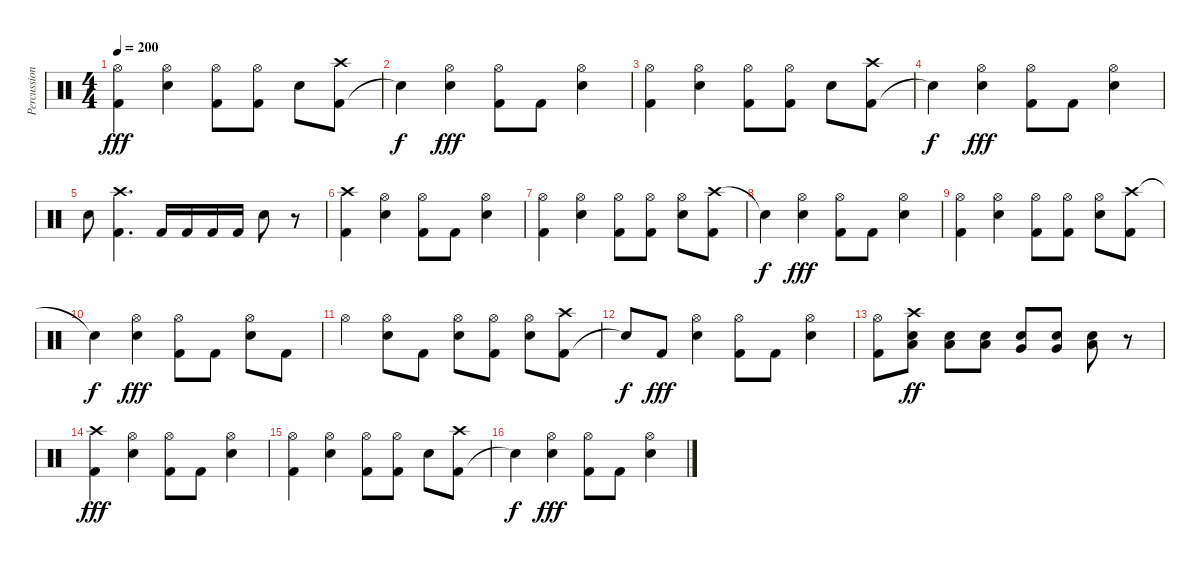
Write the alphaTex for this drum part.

\track ("Percussion" "Percussion") {instrument percussion}
\staff {score}
\articulation defaults
\ts (4 4)
\tempo 200
\clef neutral
\ks c
("Kick (hit) 2" "Hi-Hat (open)").4{dy fff} ("Snare (hit) 2" "Hi-Hat (open)").4 ("Kick (hit) 2" "Hi-Hat (open)").8 ("Kick (hit) 2" "Hi-Hat (open)").8 "Snare (hit) 2".8 ("Kick (hit) 2" "Crash high (hit)").8 |
"Snare (hit)"{t}.4{dy f} ("Snare (hit) 2" "Hi-Hat (open)").4{dy fff} ("Kick (hit) 2" "Hi-Hat (open)").8 "Kick (hit) 2".8 ("Snare (hit) 2" "Hi-Hat (open)").4 |
("Kick (hit) 2" "Hi-Hat (open)").4 ("Snare (hit) 2" "Hi-Hat (open)").4 ("Kick (hit) 2" "Hi-Hat (open)").8 ("Kick (hit) 2" "Hi-Hat (open)").8 "Snare (hit) 2".8 ("Kick (hit) 2" "Crash high (hit)").8 |
"Snare (hit)"{t}.4{dy f} ("Hi-Hat (open)" "Snare (hit) 2").4{dy fff} ("Hi-Hat (open)" "Kick (hit) 2").8 "Kick (hit) 2".8 ("Hi-Hat (open)" "Snare (hit) 2").4 |
"Snare (hit) 2".8 ("Crash high (hit)" "Kick (hit) 2").4{d} "Kick (hit) 2".16 "Kick (hit) 2".16 "Kick (hit) 2".16 "Kick (hit) 2".16 "Snare (hit) 2".8 r.8 |
("Kick (hit) 2" "Crash high (hit)").4 ("Snare (hit) 2" "Hi-Hat (open)").4 ("Kick (hit) 2" "Hi-Hat (open)").8 "Kick (hit) 2".8 ("Snare (hit) 2" "Hi-Hat (open)").4 |
("Kick (hit) 2" "Hi-Hat (open)").4 ("Snare (hit) 2" "Hi-Hat (open)").4 ("Kick (hit) 2" "Hi-Hat (open)").8 ("Kick (hit) 2" "Hi-Hat (open)").8 ("Snare (hit) 2" "Hi-Hat (open)").8 ("Crash high (hit)" "Kick (hit) 2").8 |
"Snare (hit)"{t}.4{dy f} ("Snare (hit) 2" "Hi-Hat (open)").4{dy fff} ("Kick (hit) 2" "Hi-Hat (open)").8 "Kick (hit) 2".8 ("Snare (hit) 2" "Hi-Hat (open)").4 |
("Kick (hit) 2" "Hi-Hat (open)").4 ("Snare (hit) 2" "Hi-Hat (open)").4 ("Kick (hit) 2" "Hi-Hat (open)").8 ("Kick (hit) 2" "Hi-Hat (open)").8 ("Snare (hit) 2" "Hi-Hat (open)").8 ("Crash high (hit)" "Kick (hit) 2").8 |
"Snare (hit)"{t}.4{dy f} ("Snare (hit) 2" "Hi-Hat (open)").4{dy fff} ("Kick (hit) 2" "Hi-Hat (open)").8 "Kick (hit) 2".8 ("Snare (hit) 2" "Hi-Hat (open)").8 "Kick (hit) 2".8 |
"Hi-Hat (open)".4 ("Snare (hit) 2" "Hi-Hat (open)").8 "Kick (hit) 2".8 ("Hi-Hat (open)" "Snare (hit) 2").8 ("Kick (hit) 2" "Hi-Hat (open)").8 ("Snare (hit) 2" "Hi-Hat (open)").8 ("Kick (hit) 2" "Crash high (hit)").8 |
"Snare (hit)"{t}.8{dy f} "Kick (hit) 2".8{dy fff} ("Hi-Hat (open)" "Snare (hit) 2").4 ("Hi-Hat (open)" "Kick (hit) 2").8 "Kick (hit) 2".8 ("Hi-Hat (open)" "Snare (hit) 2").4 |
("Kick (hit) 2" "Hi-Hat (open)").8 ("Crash high (hit)" "Low Tom (hit)" "Snare (hit) 2").8{dy ff} ("Low Tom (hit)" "Snare (hit) 2").8 ("Low Tom (hit)" "Snare (hit) 2").8 ("Very Low Tom (hit)" "Snare (hit) 2").8 ("Very Low Tom (hit)" "Snare (hit) 2").8 ("Low Floor Tom (hit)" "Snare (hit) 2").8 r.8 |
("Kick (hit) 2" "Crash high (hit)").4{dy fff} ("Snare (hit) 2" "Hi-Hat (open)").4 ("Kick (hit) 2" "Hi-Hat (open)").8 "Kick (hit) 2".8 ("Snare (hit) 2" "Hi-Hat (open)").4 |
("Kick (hit) 2" "Hi-Hat (open)").4 ("Snare (hit) 2" "Hi-Hat (open)").4 ("Kick (hit) 2" "Hi-Hat (open)").8 ("Kick (hit) 2" "Hi-Hat (open)").8 "Snare (hit) 2".8 ("Kick (hit) 2" "Crash high (hit)").8 |
"Snare (hit)"{t}.4{dy f} ("Snare (hit) 2" "Hi-Hat (open)").4{dy fff} ("Kick (hit) 2" "Hi-Hat (open)").8 "Kick (hit) 2".8 ("Snare (hit) 2" "Hi-Hat (open)").4
